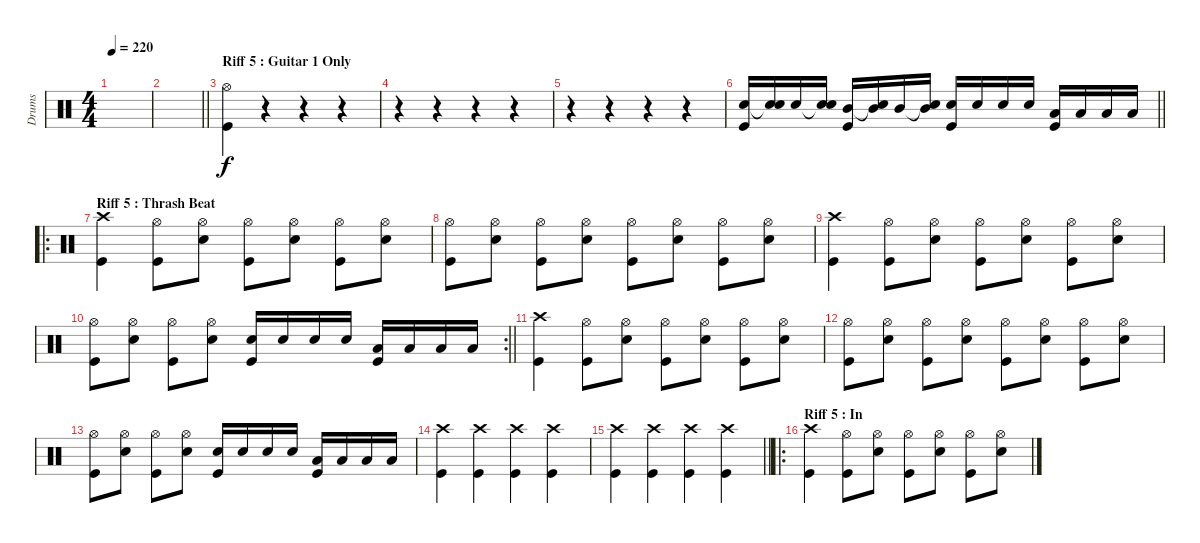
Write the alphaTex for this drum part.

\track ("Drums" "Drums") {instrument percussion}
\staff {score}
\articulation defaults
\ts (4 4)
\tempo 220
\clef neutral
\ks c
|
\barLineRight lightlight
|
\section ("" "Riff 5 : Guitar 1 Only")
("Hi-Hat (open)" "Kick (hit)").4 r.4 r.4 r.4 |
r.4 r.4 r.4 r.4 |
r.4 r.4 r.4 r.4 |
\barLineRight lightlight
("Electric Snare (hit)" "Kick (hit)").16 ("Snare (hit)"{t} "Electric Snare (hit)").16 "Electric Snare (hit)".16 ("Snare (hit)"{t} "Electric Snare (hit)").16 ("Mid Tom (hit)" "Kick (hit)").16 ("Snare (hit)"{t} "Mid Tom (hit)").16 "Mid Tom (hit)".16 ("Snare (hit)"{t} "Mid Tom (hit)").16 ("Electric Snare (hit)" "Kick (hit)").16 "Electric Snare (hit)".16 "Electric Snare (hit)".16 "Electric Snare (hit)".16 ("Low Tom (hit)" "Kick (hit)").16 "Low Tom (hit)".16 "Low Tom (hit)".16 "Low Tom (hit)".16 |
\ro
\section ("" "Riff 5 : Thrash Beat")
("Crash high (hit)" "Kick (hit)").4 ("Hi-Hat (open)" "Kick (hit)").8 ("Hi-Hat (open)" "Electric Snare (hit)").8 ("Hi-Hat (open)" "Kick (hit)").8 ("Hi-Hat (open)" "Electric Snare (hit)").8 ("Hi-Hat (open)" "Kick (hit)").8 ("Hi-Hat (open)" "Electric Snare (hit)").8 |
("Hi-Hat (open)" "Kick (hit)").8 ("Hi-Hat (open)" "Electric Snare (hit)").8 ("Hi-Hat (open)" "Kick (hit)").8 ("Hi-Hat (open)" "Electric Snare (hit)").8 ("Hi-Hat (open)" "Kick (hit)").8 ("Hi-Hat (open)" "Electric Snare (hit)").8 ("Hi-Hat (open)" "Kick (hit)").8 ("Hi-Hat (open)" "Electric Snare (hit)").8 |
("Crash high (hit)" "Kick (hit)").4 ("Hi-Hat (open)" "Kick (hit)").8 ("Hi-Hat (open)" "Electric Snare (hit)").8 ("Hi-Hat (open)" "Kick (hit)").8 ("Hi-Hat (open)" "Electric Snare (hit)").8 ("Hi-Hat (open)" "Kick (hit)").8 ("Hi-Hat (open)" "Electric Snare (hit)").8 |
\rc 2
\barLineRight lightlight
("Hi-Hat (open)" "Kick (hit)").8 ("Hi-Hat (open)" "Electric Snare (hit)").8 ("Hi-Hat (open)" "Kick (hit)").8 ("Hi-Hat (open)" "Electric Snare (hit)").8 ("Electric Snare (hit)" "Kick (hit)").16 "Electric Snare (hit)".16 "Electric Snare (hit)".16 "Electric Snare (hit)".16 ("Low Tom (hit)" "Kick (hit)").16 "Low Tom (hit)".16 "Low Tom (hit)".16 "Low Tom (hit)".16 |
("Crash high (hit)" "Kick (hit)").4 ("Hi-Hat (open)" "Kick (hit)").8 ("Hi-Hat (open)" "Electric Snare (hit)").8 ("Hi-Hat (open)" "Kick (hit)").8 ("Hi-Hat (open)" "Electric Snare (hit)").8 ("Hi-Hat (open)" "Kick (hit)").8 ("Hi-Hat (open)" "Electric Snare (hit)").8 |
("Hi-Hat (open)" "Kick (hit)").8 ("Hi-Hat (open)" "Electric Snare (hit)").8 ("Hi-Hat (open)" "Kick (hit)").8 ("Hi-Hat (open)" "Electric Snare (hit)").8 ("Hi-Hat (open)" "Kick (hit)").8 ("Hi-Hat (open)" "Electric Snare (hit)").8 ("Hi-Hat (open)" "Kick (hit)").8 ("Hi-Hat (open)" "Electric Snare (hit)").8 |
("Hi-Hat (open)" "Kick (hit)").8 ("Hi-Hat (open)" "Electric Snare (hit)").8 ("Hi-Hat (open)" "Kick (hit)").8 ("Hi-Hat (open)" "Electric Snare (hit)").8 ("Electric Snare (hit)" "Kick (hit)").16 "Electric Snare (hit)".16 "Electric Snare (hit)".16 "Electric Snare (hit)".16 ("Low Tom (hit)" "Kick (hit)").16 "Low Tom (hit)".16 "Low Tom (hit)".16 "Low Tom (hit)".16 |
("Crash high (hit)" "Kick (hit)").4 ("Crash high (hit)" "Kick (hit)").4 ("Crash high (hit)" "Kick (hit)").4 ("Crash high (hit)" "Kick (hit)").4 |
\barLineRight lightlight
("Crash high (hit)" "Kick (hit)").4 ("Crash high (hit)" "Kick (hit)").4 ("Crash high (hit)" "Kick (hit)").4 ("Crash high (hit)" "Kick (hit)").4 |
\ro
\section ("" "Riff 5 : In")
("Crash high (hit)" "Kick (hit)").4 ("Hi-Hat (open)" "Kick (hit)").8 ("Hi-Hat (open)" "Electric Snare (hit)").8 ("Hi-Hat (open)" "Kick (hit)").8 ("Hi-Hat (open)" "Electric Snare (hit)").8 ("Hi-Hat (open)" "Kick (hit)").8 ("Hi-Hat (open)" "Electric Snare (hit)").8
